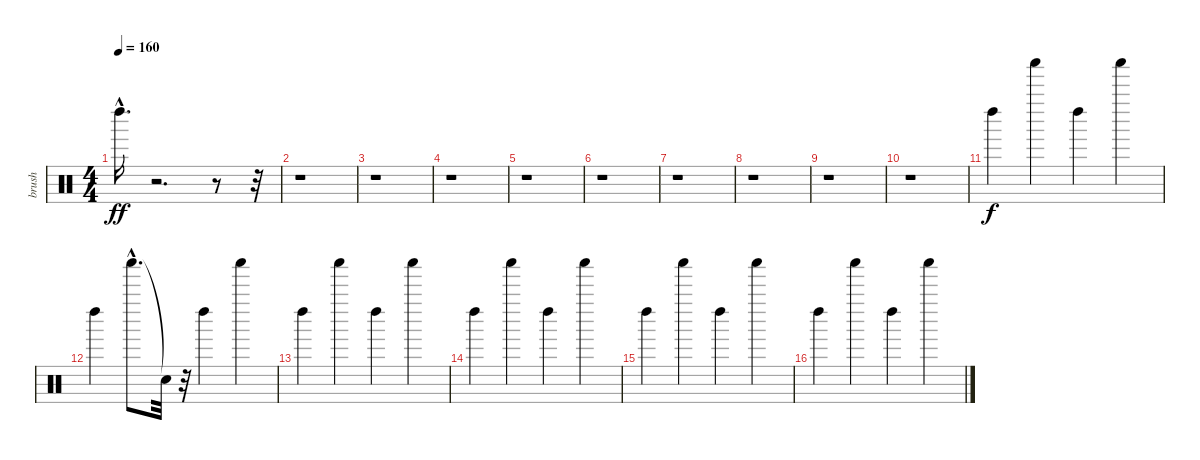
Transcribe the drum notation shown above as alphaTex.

\track ("brush" "brush") {instrument percussion}
\staff {score}
\articulation defaults
\ts (4 4)
\tempo 160
\clef neutral
\ks c "Left Maraca (hit)"{hac}.16{d dy ff}
r.2{d} r.8 r.32 |
r.1 |
r.1 |
r.1 |
r.1 |
r.1 |
r.1 |
r.1 |
r.1 |
r.1 |
"Left Maraca (hit)".4{dy f} "Shaker (hit)".4 "Left Maraca (hit)".4 "Shaker (hit)".4 |
"Left Maraca (hit)".4 "Shaker (hit)"{hac}.8{d} "Snare (hit)"{t}.32 r.32 "Left Maraca (hit)".4 "Shaker (hit)".4 |
"Left Maraca (hit)".4 "Shaker (hit)".4 "Left Maraca (hit)".4 "Shaker (hit)".4 |
"Left Maraca (hit)".4 "Shaker (hit)".4 "Left Maraca (hit)".4 "Shaker (hit)".4 |
"Left Maraca (hit)".4 "Shaker (hit)".4 "Left Maraca (hit)".4 "Shaker (hit)".4 |
"Left Maraca (hit)".4 "Shaker (hit)".4 "Left Maraca (hit)".4 "Shaker (hit)".4
